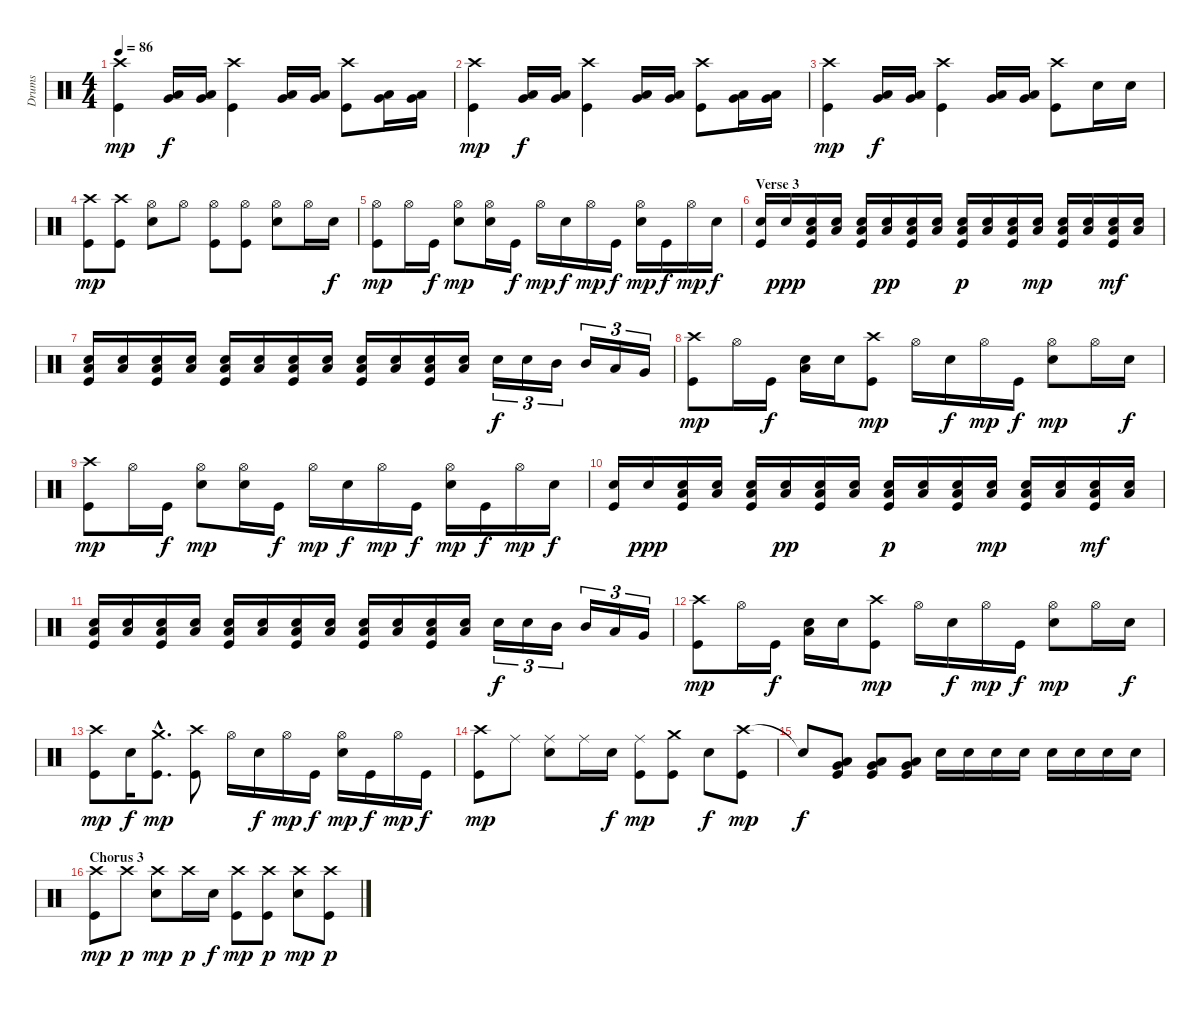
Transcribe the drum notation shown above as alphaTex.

\track ("Drums" "Drums") {instrument percussion}
\staff {score}
\articulation defaults
\ts (4 4)
\tempo 86
\clef neutral
\ks c
("Crash high (hit)" "Kick (hit)").4{dy mp} ("Low Tom (hit)" "Very Low Tom (hit)").16{dy f} ("Low Tom (hit)" "Very Low Tom (hit)").16 ("Crash high (hit)" "Kick (hit)").4 ("Low Tom (hit)" "Very Low Tom (hit)").16 ("Low Tom (hit)" "Very Low Tom (hit)").16 ("Crash high (hit)" "Kick (hit)").8 ("Very Low Tom (hit)" "Low Floor Tom (hit)").16 ("Very Low Tom (hit)" "Low Floor Tom (hit)").16 |
("Crash high (hit)" "Kick (hit)").4{dy mp} ("Low Tom (hit)" "Very Low Tom (hit)").16{dy f} ("Low Tom (hit)" "Very Low Tom (hit)").16 ("Crash high (hit)" "Kick (hit)").4 ("Low Tom (hit)" "Very Low Tom (hit)").16 ("Low Tom (hit)" "Very Low Tom (hit)").16 ("Crash high (hit)" "Kick (hit)").8 ("Very Low Tom (hit)" "Low Floor Tom (hit)").16 ("Very Low Tom (hit)" "Low Floor Tom (hit)").16 |
("Crash high (hit)" "Kick (hit)").4{dy mp} ("Low Tom (hit)" "Very Low Tom (hit)").16{dy f} ("Low Tom (hit)" "Very Low Tom (hit)").16 ("Crash high (hit)" "Kick (hit)").4 ("Low Tom (hit)" "Very Low Tom (hit)").16 ("Low Tom (hit)" "Very Low Tom (hit)").16 ("Crash high (hit)" "Kick (hit)").8 "Electric Snare (hit)".16 "Electric Snare (hit)".16 |
("Crash high (hit)" "Kick (hit)").8{dy mp} ("Crash high (hit)" "Kick (hit)").8 ("Hi-Hat (open)" "Electric Snare (hit)").8 "Hi-Hat (open)".8 ("Hi-Hat (open)" "Kick (hit)").8 ("Hi-Hat (open)" "Kick (hit)").8 ("Hi-Hat (open)" "Electric Snare (hit)").8 "Hi-Hat (open)".16 "Electric Snare (hit)".16{dy f} |
("Hi-Hat (open)" "Kick (hit)").8{dy mp} "Hi-Hat (open)".16 "Kick (hit)".16{dy f} ("Hi-Hat (open)" "Electric Snare (hit)").8{dy mp} ("Hi-Hat (open)" "Electric Snare (hit)").16 "Kick (hit)".16{dy f} "Hi-Hat (open)".16{dy mp} "Electric Snare (hit)".16{dy f} "Hi-Hat (open)".16{dy mp} "Kick (hit)".16{dy f} ("Hi-Hat (open)" "Electric Snare (hit)").16{dy mp} "Kick (hit)".16{dy f} "Hi-Hat (open)".16{dy mp} "Electric Snare (hit)".16{dy f} |
\section ("" "Verse 3")
("Electric Snare (hit)" "Kick (hit)").16 "Electric Snare (hit)".16{dy ppp} ("Electric Snare (hit)" "Low Floor Tom (hit)" "Kick (hit)").16 ("Electric Snare (hit)" "Low Floor Tom (hit)").16 ("Electric Snare (hit)" "Low Floor Tom (hit)" "Kick (hit)").16 ("Electric Snare (hit)" "Low Floor Tom (hit)").16{dy pp} ("Electric Snare (hit)" "Low Floor Tom (hit)" "Kick (hit)").16 ("Electric Snare (hit)" "Low Floor Tom (hit)").16 ("Electric Snare (hit)" "Low Floor Tom (hit)" "Kick (hit)").16{dy p} ("Electric Snare (hit)" "Low Floor Tom (hit)").16 ("Electric Snare (hit)" "Low Floor Tom (hit)" "Kick (hit)").16 ("Electric Snare (hit)" "Low Floor Tom (hit)").16{dy mp} ("Electric Snare (hit)" "Low Floor Tom (hit)" "Kick (hit)").16 ("Electric Snare (hit)" "Low Floor Tom (hit)").16 ("Electric Snare (hit)" "Low Floor Tom (hit)" "Kick (hit)").16{dy mf} ("Electric Snare (hit)" "Low Floor Tom (hit)").16 |
("Electric Snare (hit)" "Low Floor Tom (hit)" "Kick (hit)").16 ("Electric Snare (hit)" "Low Floor Tom (hit)").16 ("Electric Snare (hit)" "Low Floor Tom (hit)" "Kick (hit)").16 ("Electric Snare (hit)" "Low Floor Tom (hit)").16 ("Electric Snare (hit)" "Low Floor Tom (hit)" "Kick (hit)").16 ("Electric Snare (hit)" "Low Floor Tom (hit)").16 ("Electric Snare (hit)" "Low Floor Tom (hit)" "Kick (hit)").16 ("Electric Snare (hit)" "Low Floor Tom (hit)").16 ("Electric Snare (hit)" "Low Floor Tom (hit)" "Kick (hit)").16 ("Electric Snare (hit)" "Low Floor Tom (hit)").16 ("Electric Snare (hit)" "Low Floor Tom (hit)" "Kick (hit)").16 ("Electric Snare (hit)" "Low Floor Tom (hit)").16 "Electric Snare (hit)".16{tu (3 2) dy f} "Electric Snare (hit)".16{tu (3 2)} "Mid Tom (hit)".16{tu (3 2)} "Mid Tom (hit)".16{tu (3 2)} "Low Tom (hit)".16{tu (3 2)} "Very Low Tom (hit)".16{tu (3 2)} |
("Crash high (hit)" "Kick (hit)").8{dy mp} "Hi-Hat (open)".16 "Kick (hit)".16{dy f} ("Electric Snare (hit)" "Low Floor Tom (hit)").16 "Electric Snare (hit)".16 ("Crash high (hit)" "Kick (hit)").8{dy mp} "Hi-Hat (open)".16 "Electric Snare (hit)".16{dy f} "Hi-Hat (open)".16{dy mp} "Kick (hit)".16{dy f} ("Hi-Hat (open)" "Electric Snare (hit)").8{dy mp} "Hi-Hat (open)".16 "Electric Snare (hit)".16{dy f} |
("Crash high (hit)" "Kick (hit)").8{dy mp} "Hi-Hat (open)".16 "Kick (hit)".16{dy f} ("Hi-Hat (open)" "Electric Snare (hit)").8{dy mp} ("Hi-Hat (open)" "Electric Snare (hit)").16 "Kick (hit)".16{dy f} "Hi-Hat (open)".16{dy mp} "Electric Snare (hit)".16{dy f} "Hi-Hat (open)".16{dy mp} "Kick (hit)".16{dy f} ("Hi-Hat (open)" "Electric Snare (hit)").16{dy mp} "Kick (hit)".16{dy f} "Hi-Hat (open)".16{dy mp} "Electric Snare (hit)".16{dy f} |
("Electric Snare (hit)" "Kick (hit)").16 "Electric Snare (hit)".16{dy ppp} ("Electric Snare (hit)" "Low Floor Tom (hit)" "Kick (hit)").16 ("Electric Snare (hit)" "Low Floor Tom (hit)").16 ("Electric Snare (hit)" "Low Floor Tom (hit)" "Kick (hit)").16 ("Electric Snare (hit)" "Low Floor Tom (hit)").16{dy pp} ("Electric Snare (hit)" "Low Floor Tom (hit)" "Kick (hit)").16 ("Electric Snare (hit)" "Low Floor Tom (hit)").16 ("Electric Snare (hit)" "Low Floor Tom (hit)" "Kick (hit)").16{dy p} ("Electric Snare (hit)" "Low Floor Tom (hit)").16 ("Electric Snare (hit)" "Low Floor Tom (hit)" "Kick (hit)").16 ("Electric Snare (hit)" "Low Floor Tom (hit)").16{dy mp} ("Electric Snare (hit)" "Low Floor Tom (hit)" "Kick (hit)").16 ("Electric Snare (hit)" "Low Floor Tom (hit)").16 ("Electric Snare (hit)" "Low Floor Tom (hit)" "Kick (hit)").16{dy mf} ("Electric Snare (hit)" "Low Floor Tom (hit)").16 |
("Electric Snare (hit)" "Low Floor Tom (hit)" "Kick (hit)").16 ("Electric Snare (hit)" "Low Floor Tom (hit)").16 ("Electric Snare (hit)" "Low Floor Tom (hit)" "Kick (hit)").16 ("Electric Snare (hit)" "Low Floor Tom (hit)").16 ("Electric Snare (hit)" "Low Floor Tom (hit)" "Kick (hit)").16 ("Electric Snare (hit)" "Low Floor Tom (hit)").16 ("Electric Snare (hit)" "Low Floor Tom (hit)" "Kick (hit)").16 ("Electric Snare (hit)" "Low Floor Tom (hit)").16 ("Electric Snare (hit)" "Low Floor Tom (hit)" "Kick (hit)").16 ("Electric Snare (hit)" "Low Floor Tom (hit)").16 ("Electric Snare (hit)" "Low Floor Tom (hit)" "Kick (hit)").16 ("Electric Snare (hit)" "Low Floor Tom (hit)").16 "Electric Snare (hit)".16{tu (3 2) dy f} "Electric Snare (hit)".16{tu (3 2)} "Mid Tom (hit)".16{tu (3 2)} "Mid Tom (hit)".16{tu (3 2)} "Low Tom (hit)".16{tu (3 2)} "Very Low Tom (hit)".16{tu (3 2)} |
("Crash high (hit)" "Kick (hit)").8{dy mp} "Hi-Hat (open)".16 "Kick (hit)".16{dy f} ("Electric Snare (hit)" "Low Floor Tom (hit)").16 "Electric Snare (hit)".16 ("Crash high (hit)" "Kick (hit)").8{dy mp} "Hi-Hat (open)".16 "Electric Snare (hit)".16{dy f} "Hi-Hat (open)".16{dy mp} "Kick (hit)".16{dy f} ("Hi-Hat (open)" "Electric Snare (hit)").8{dy mp} "Hi-Hat (open)".16 "Electric Snare (hit)".16{dy f} |
("Crash high (hit)" "Kick (hit)").8{dy mp} "Electric Snare (hit)".16{dy f} ("Crash medium (hit)"{hac} "Kick (hit)"{hac}).8{d dy mp} ("Crash high (hit)" "Kick (hit)").8 "Hi-Hat (open)".16 "Electric Snare (hit)".16{dy f} "Hi-Hat (open)".16{dy mp} "Kick (hit)".16{dy f} ("Hi-Hat (open)" "Electric Snare (hit)").16{dy mp} "Kick (hit)".16{dy f} "Hi-Hat (open)".16{dy mp} "Kick (hit)".16{dy f} |
("Crash high (hit)" "Kick (hit)").8{dy mp} "Ride (middle)".8 ("Ride (middle)" "Electric Snare (hit)").8 "Ride (middle)".16 "Electric Snare (hit)".16{dy f} ("Ride (middle)" "Kick (hit)").8{dy mp} ("Crash medium (hit)" "Kick (hit)").8 "Electric Snare (hit)".8{dy f} ("Crash high (hit)" "Kick (hit)").8{dy mp} |
"Snare (hit)"{t}.8{dy f} ("Low Tom (hit)" "Very Low Tom (hit)" "Kick (hit)").8 ("Low Tom (hit)" "Very Low Tom (hit)" "Kick (hit)").8 ("Low Tom (hit)" "Very Low Tom (hit)" "Kick (hit)").8 "Electric Snare (hit)".16 "Electric Snare (hit)".16 "Electric Snare (hit)".16 "Electric Snare (hit)".16 "Electric Snare (hit)".16 "Electric Snare (hit)".16 "Electric Snare (hit)".16 "Electric Snare (hit)".16 |
\section ("" "Chorus 3")
("Crash high (hit)" "Kick (hit)").8{dy mp} "Crash high (hit)".8{dy p} ("Crash high (hit)" "Electric Snare (hit)").8{dy mp} "Crash high (hit)".16{dy p} "Electric Snare (hit)".16{dy f} ("Crash high (hit)" "Kick (hit)").8{dy mp} ("Crash high (hit)" "Kick (hit)").8{dy p} ("Crash high (hit)" "Electric Snare (hit)").8{dy mp} ("Crash high (hit)" "Kick (hit)").8{dy p}
